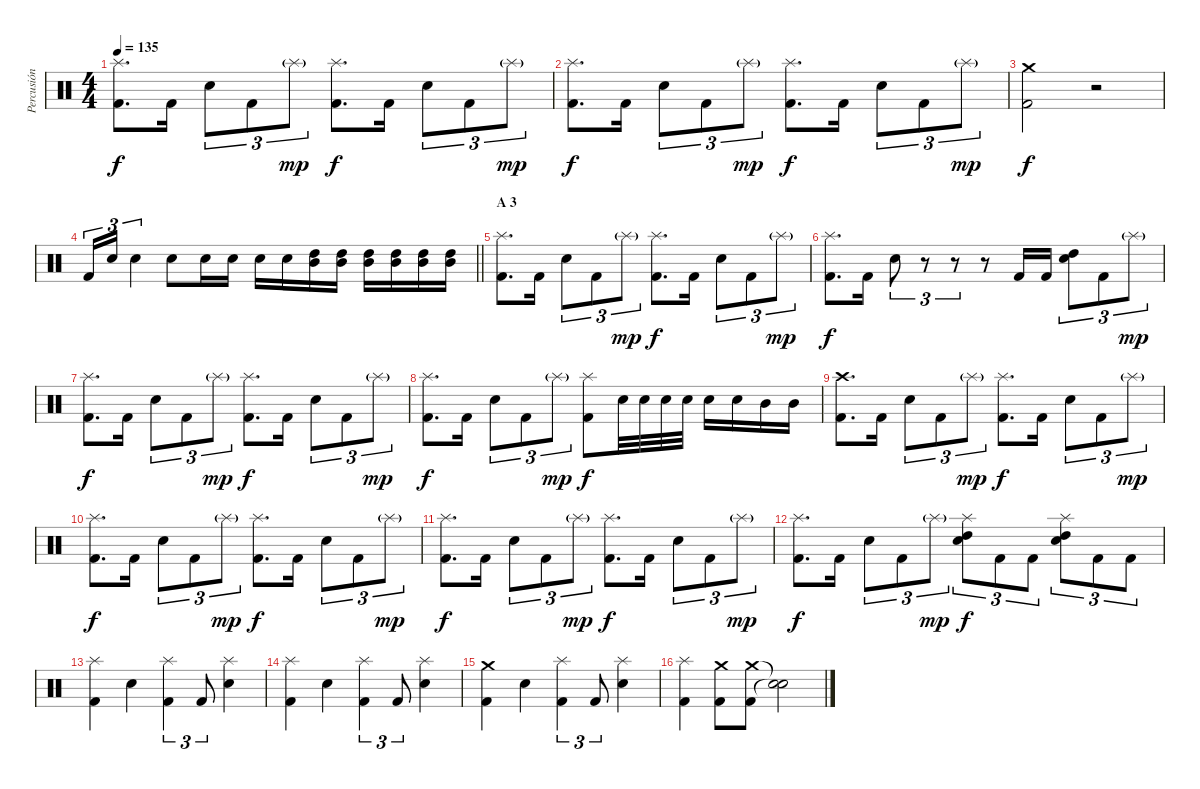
\track ("Percusión" "Percusión") {instrument percussion}
\staff {score}
\articulation defaults
\ts (4 4)
\tempo 135
\clef neutral
\ks c
("Splash (hit)" "Kick (hit) 2").8{d dy f} "Kick (hit) 2".16 "Snare (hit) 2".8{tu (3 2)} "Kick (hit) 2".8{tu (3 2)} "Splash (hit)"{g}.8{tu (3 2) dy mp} ("Splash (hit)" "Kick (hit) 2").8{d dy f} "Kick (hit) 2".16 "Snare (hit) 2".8{tu (3 2)} "Kick (hit) 2".8{tu (3 2)} "Splash (hit)"{g}.8{tu (3 2) dy mp} |
("Splash (hit)" "Kick (hit) 2").8{d dy f} "Kick (hit) 2".16 "Snare (hit) 2".8{tu (3 2)} "Kick (hit) 2".8{tu (3 2)} "Splash (hit)"{g}.8{tu (3 2) dy mp} ("Splash (hit)" "Kick (hit) 2").8{d dy f} "Kick (hit) 2".16 "Snare (hit) 2".8{tu (3 2)} "Kick (hit) 2".8{tu (3 2)} "Splash (hit)"{g}.8{tu (3 2) dy mp} |
("Crash medium (hit)" "Kick (hit) 2").2{dy f} r.2 |
\barLineRight lightlight "Kick (hit) 2".16{tu (3 2)} "Snare (hit) 2".16{tu (3 2)} "Snare (hit) 2".4{tu (3 2)} "Snare (hit) 2".8 "Snare (hit) 2".16 "Snare (hit) 2".16 "Snare (hit) 2".16 "Snare (hit) 2".16
("Mid Tom (hit)" "High Tom (hit)").16 ("Mid Tom (hit)" "High Tom (hit)").16 ("Mid Tom (hit)" "High Tom (hit)").16 ("Mid Tom (hit)" "High Tom (hit)").16 ("Mid Tom (hit)" "High Tom (hit)").16 ("Mid Tom (hit)" "High Tom (hit)").16 |
\section ("" "A 3")
("Splash (hit)" "Kick (hit) 2").8{d} "Kick (hit) 2".16 "Snare (hit) 2".8{tu (3 2)} "Kick (hit) 2".8{tu (3 2)} "Splash (hit)"{g}.8{tu (3 2) dy mp} ("Splash (hit)" "Kick (hit) 2").8{d dy f} "Kick (hit) 2".16 "Snare (hit) 2".8{tu (3 2)} "Kick (hit) 2".8{tu (3 2)} "Splash (hit)"{g}.8{tu (3 2) dy mp} |
("Splash (hit)" "Kick (hit) 2").8{d dy f} "Kick (hit) 2".16 "Snare (hit) 2".8{tu (3 2)} r.8{tu (3 2)} r.8{tu (3 2)} r.8 "Kick (hit) 2".16 "Kick (hit) 2".16 ("High Tom (hit)" "Snare (hit) 2").8{tu (3 2)} "Kick (hit) 2".8{tu (3 2)} "Splash (hit)"{g}.8{tu (3 2) dy mp} |
("Splash (hit)" "Kick (hit) 2").8{d dy f} "Kick (hit) 2".16 "Snare (hit) 2".8{tu (3 2)} "Kick (hit) 2".8{tu (3 2)} "Splash (hit)"{g}.8{tu (3 2) dy mp} ("Splash (hit)" "Kick (hit) 2").8{d dy f} "Kick (hit) 2".16 "Snare (hit) 2".8{tu (3 2)} "Kick (hit) 2".8{tu (3 2)} "Splash (hit)"{g}.8{tu (3 2) dy mp} |
("Splash (hit)" "Kick (hit) 2").8{d dy f} "Kick (hit) 2".16 "Snare (hit) 2".8{tu (3 2)} "Kick (hit) 2".8{tu (3 2)} "Splash (hit)"{g}.8{tu (3 2) dy mp} ("Splash (hit)" "Kick (hit) 2").8{dy f} "Snare (hit) 2".32 "Snare (hit) 2".32 "Snare (hit) 2".32 "Snare (hit) 2".32 "Snare (hit) 2".16 "Snare (hit) 2".16 "Mid Tom (hit)".16 "Mid Tom (hit)".16 |
("Crash high (hit)" "Kick (hit) 2").8{d} "Kick (hit) 2".16 "Snare (hit) 2".8{tu (3 2)} "Kick (hit) 2".8{tu (3 2)} "Splash (hit)"{g}.8{tu (3 2) dy mp} ("Splash (hit)" "Kick (hit) 2").8{d dy f} "Kick (hit) 2".16 "Snare (hit) 2".8{tu (3 2)} "Kick (hit) 2".8{tu (3 2)} "Splash (hit)"{g}.8{tu (3 2) dy mp} |
("Splash (hit)" "Kick (hit) 2").8{d dy f} "Kick (hit) 2".16 "Snare (hit) 2".8{tu (3 2)} "Kick (hit) 2".8{tu (3 2)} "Splash (hit)"{g}.8{tu (3 2) dy mp} ("Splash (hit)" "Kick (hit) 2").8{d dy f} "Kick (hit) 2".16 "Snare (hit) 2".8{tu (3 2)} "Kick (hit) 2".8{tu (3 2)} "Splash (hit)"{g}.8{tu (3 2) dy mp} |
("Splash (hit)" "Kick (hit) 2").8{d dy f} "Kick (hit) 2".16 "Snare (hit) 2".8{tu (3 2)} "Kick (hit) 2".8{tu (3 2)} "Splash (hit)"{g}.8{tu (3 2) dy mp} ("Splash (hit)" "Kick (hit) 2").8{d dy f} "Kick (hit) 2".16 "Snare (hit) 2".8{tu (3 2)} "Kick (hit) 2".8{tu (3 2)} "Splash (hit)"{g}.8{tu (3 2) dy mp} |
("Splash (hit)" "Kick (hit) 2").8{d dy f} "Kick (hit) 2".16 "Snare (hit) 2".8{tu (3 2)} "Kick (hit) 2".8{tu (3 2)} "Splash (hit)"{g}.8{tu (3 2) dy mp} ("Splash (hit)" "High Tom (hit)" "Snare (hit) 2").8{tu (3 2) dy f} "Kick (hit) 2".8{tu (3 2)} "Kick (hit) 2".8{tu (3 2)} ("Splash (hit)" "High Tom (hit)" "Snare (hit) 2").8{tu (3 2)} "Kick (hit) 2".8{tu (3 2)} "Kick (hit) 2".8{tu (3 2)} |
("Splash (hit)" "Kick (hit) 2").4 "Snare (hit) 2".4 ("Splash (hit)" "Kick (hit) 2").4{tu (3 2)} "Kick (hit) 2".8{tu (3 2)} ("Splash (hit)" "Snare (hit) 2").4 |
("Splash (hit)" "Kick (hit) 2").4 "Snare (hit) 2".4 ("Splash (hit)" "Kick (hit) 2").4{tu (3 2)} "Kick (hit) 2".8{tu (3 2)} ("Splash (hit)" "Snare (hit) 2").4 |
("Crash medium (hit)" "Kick (hit) 2").4 "Snare (hit) 2".4 ("Splash (hit)" "Kick (hit) 2").4{tu (3 2)} "Kick (hit) 2".8{tu (3 2)} ("Splash (hit)" "Snare (hit) 2").4 |
("Splash (hit)" "Kick (hit) 2").4 ("Crash medium (hit)" "Kick (hit) 2").8 ("Crash medium (hit)" "Kick (hit) 2").8 ("Snare (hit)"{t} "Snare (hit)"{t}).2
